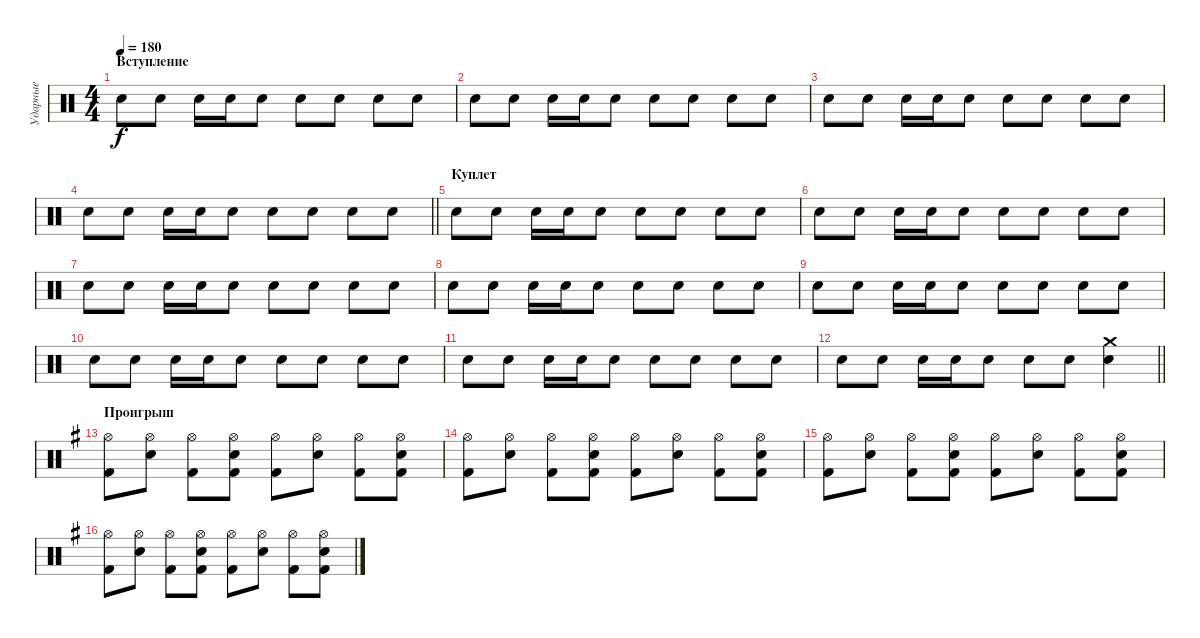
\track ("Ударные" "Ударные") {instrument percussion}
\staff {score}
\articulation defaults
\ts (4 4)
\section ("" "Вступление")
\tempo 180
\clef neutral
\ks c "Electric Snare (hit)".8{dy f} "Electric Snare (hit)".8 "Electric Snare (hit)".16 "Electric Snare (hit)".16 "Electric Snare (hit)".8 "Electric Snare (hit)".8 "Electric Snare (hit)".8 "Electric Snare (hit)".8 "Electric Snare (hit)".8
|
"Electric Snare (hit)".8 "Electric Snare (hit)".8 "Electric Snare (hit)".16 "Electric Snare (hit)".16 "Electric Snare (hit)".8 "Electric Snare (hit)".8 "Electric Snare (hit)".8 "Electric Snare (hit)".8 "Electric Snare (hit)".8 |
"Electric Snare (hit)".8 "Electric Snare (hit)".8 "Electric Snare (hit)".16 "Electric Snare (hit)".16 "Electric Snare (hit)".8 "Electric Snare (hit)".8 "Electric Snare (hit)".8 "Electric Snare (hit)".8 "Electric Snare (hit)".8 |
\barLineRight lightlight "Electric Snare (hit)".8 "Electric Snare (hit)".8 "Electric Snare (hit)".16 "Electric Snare (hit)".16 "Electric Snare (hit)".8 "Electric Snare (hit)".8 "Electric Snare (hit)".8 "Electric Snare (hit)".8 "Electric Snare (hit)".8
|
\section ("" "Куплет")
"Electric Snare (hit)".8 "Electric Snare (hit)".8 "Electric Snare (hit)".16 "Electric Snare (hit)".16 "Electric Snare (hit)".8 "Electric Snare (hit)".8 "Electric Snare (hit)".8 "Electric Snare (hit)".8 "Electric Snare (hit)".8 |
"Electric Snare (hit)".8 "Electric Snare (hit)".8 "Electric Snare (hit)".16 "Electric Snare (hit)".16 "Electric Snare (hit)".8 "Electric Snare (hit)".8 "Electric Snare (hit)".8 "Electric Snare (hit)".8 "Electric Snare (hit)".8 |
"Electric Snare (hit)".8 "Electric Snare (hit)".8 "Electric Snare (hit)".16 "Electric Snare (hit)".16 "Electric Snare (hit)".8 "Electric Snare (hit)".8 "Electric Snare (hit)".8 "Electric Snare (hit)".8 "Electric Snare (hit)".8 |
"Electric Snare (hit)".8 "Electric Snare (hit)".8 "Electric Snare (hit)".16 "Electric Snare (hit)".16 "Electric Snare (hit)".8 "Electric Snare (hit)".8 "Electric Snare (hit)".8 "Electric Snare (hit)".8 "Electric Snare (hit)".8 |
"Electric Snare (hit)".8 "Electric Snare (hit)".8 "Electric Snare (hit)".16 "Electric Snare (hit)".16 "Electric Snare (hit)".8 "Electric Snare (hit)".8 "Electric Snare (hit)".8 "Electric Snare (hit)".8 "Electric Snare (hit)".8 |
"Electric Snare (hit)".8 "Electric Snare (hit)".8 "Electric Snare (hit)".16 "Electric Snare (hit)".16 "Electric Snare (hit)".8 "Electric Snare (hit)".8 "Electric Snare (hit)".8 "Electric Snare (hit)".8 "Electric Snare (hit)".8 |
"Electric Snare (hit)".8 "Electric Snare (hit)".8 "Electric Snare (hit)".16 "Electric Snare (hit)".16 "Electric Snare (hit)".8 "Electric Snare (hit)".8 "Electric Snare (hit)".8 "Electric Snare (hit)".8 "Electric Snare (hit)".8 |
\barLineRight lightlight "Electric Snare (hit)".8 "Electric Snare (hit)".8 "Electric Snare (hit)".16 "Electric Snare (hit)".16 "Electric Snare (hit)".8 "Electric Snare (hit)".8 "Electric Snare (hit)".8
("Crash medium (hit)" "Electric Snare (hit)").4 |
\section ("" "Проигрыш")
\ks g
("Kick (hit) 2" "Hi-Hat (open)").8 ("Hi-Hat (open)" "Electric Snare (hit)").8 ("Kick (hit) 2" "Hi-Hat (open)").8 ("Kick (hit) 2" "Hi-Hat (open)" "Electric Snare (hit)").8 ("Kick (hit) 2" "Hi-Hat (open)").8 ("Hi-Hat (open)" "Electric Snare (hit)").8 ("Kick (hit) 2" "Hi-Hat (open)").8 ("Kick (hit) 2" "Hi-Hat (open)" "Electric Snare (hit)").8 |
("Kick (hit) 2" "Hi-Hat (open)").8 ("Hi-Hat (open)" "Electric Snare (hit)").8 ("Kick (hit) 2" "Hi-Hat (open)").8 ("Kick (hit) 2" "Hi-Hat (open)" "Electric Snare (hit)").8 ("Kick (hit) 2" "Hi-Hat (open)").8 ("Hi-Hat (open)" "Electric Snare (hit)").8 ("Kick (hit) 2" "Hi-Hat (open)").8 ("Kick (hit) 2" "Hi-Hat (open)" "Electric Snare (hit)").8 |
("Kick (hit) 2" "Hi-Hat (open)").8 ("Hi-Hat (open)" "Electric Snare (hit)").8 ("Kick (hit) 2" "Hi-Hat (open)").8 ("Kick (hit) 2" "Hi-Hat (open)" "Electric Snare (hit)").8 ("Kick (hit) 2" "Hi-Hat (open)").8 ("Hi-Hat (open)" "Electric Snare (hit)").8 ("Kick (hit) 2" "Hi-Hat (open)").8 ("Kick (hit) 2" "Hi-Hat (open)" "Electric Snare (hit)").8 |
("Kick (hit) 2" "Hi-Hat (open)").8 ("Hi-Hat (open)" "Electric Snare (hit)").8 ("Kick (hit) 2" "Hi-Hat (open)").8 ("Kick (hit) 2" "Hi-Hat (open)" "Electric Snare (hit)").8 ("Kick (hit) 2" "Hi-Hat (open)").8 ("Hi-Hat (open)" "Electric Snare (hit)").8 ("Kick (hit) 2" "Hi-Hat (open)").8 ("Kick (hit) 2" "Hi-Hat (open)" "Electric Snare (hit)").8
